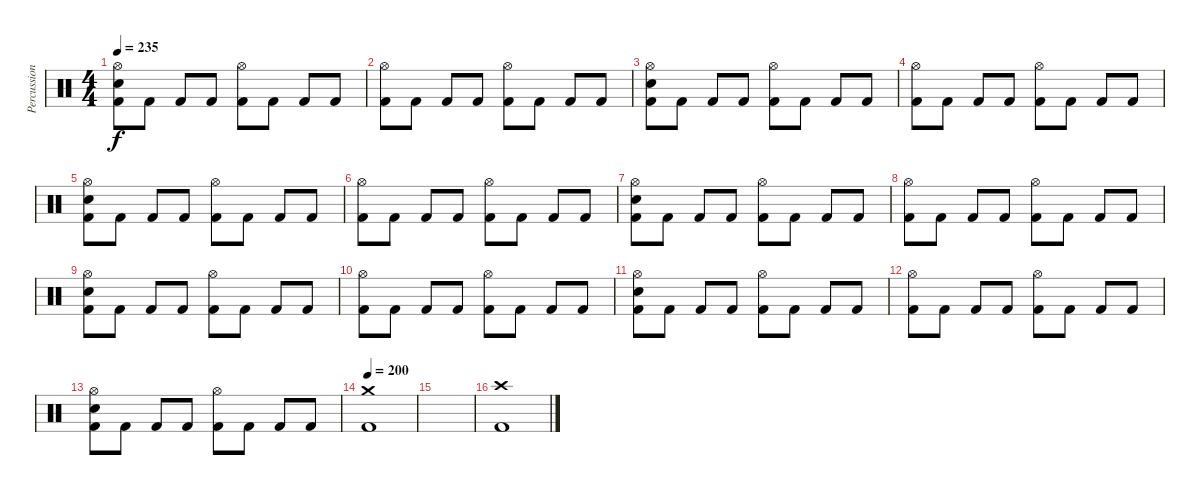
\track ("Percussion" "Percussion") {instrument percussion}
\staff {score}
\articulation defaults
\ts (4 4)
\tempo 235
\clef neutral
\ks c
("Hi-Hat (open)" "Electric Snare (hit)" "Kick (hit) 2").8{dy f} "Kick (hit) 2".8 "Kick (hit) 2".8 "Kick (hit) 2".8 ("Hi-Hat (open)" "Kick (hit) 2").8 "Kick (hit) 2".8 "Kick (hit) 2".8 "Kick (hit) 2".8 |
("Hi-Hat (open)" "Kick (hit) 2").8 "Kick (hit) 2".8 "Kick (hit) 2".8 "Kick (hit) 2".8 ("Hi-Hat (open)" "Kick (hit) 2").8 "Kick (hit) 2".8 "Kick (hit) 2".8 "Kick (hit) 2".8 |
("Hi-Hat (open)" "Electric Snare (hit)" "Kick (hit) 2").8 "Kick (hit) 2".8 "Kick (hit) 2".8 "Kick (hit) 2".8 ("Hi-Hat (open)" "Kick (hit) 2").8 "Kick (hit) 2".8 "Kick (hit) 2".8 "Kick (hit) 2".8 |
("Hi-Hat (open)" "Kick (hit) 2").8 "Kick (hit) 2".8 "Kick (hit) 2".8 "Kick (hit) 2".8 ("Hi-Hat (open)" "Kick (hit) 2").8 "Kick (hit) 2".8 "Kick (hit) 2".8 "Kick (hit) 2".8 |
("Hi-Hat (open)" "Electric Snare (hit)" "Kick (hit) 2").8 "Kick (hit) 2".8 "Kick (hit) 2".8 "Kick (hit) 2".8 ("Hi-Hat (open)" "Kick (hit) 2").8 "Kick (hit) 2".8 "Kick (hit) 2".8 "Kick (hit) 2".8 |
("Hi-Hat (open)" "Kick (hit) 2").8 "Kick (hit) 2".8 "Kick (hit) 2".8 "Kick (hit) 2".8 ("Hi-Hat (open)" "Kick (hit) 2").8 "Kick (hit) 2".8 "Kick (hit) 2".8 "Kick (hit) 2".8 |
("Hi-Hat (open)" "Electric Snare (hit)" "Kick (hit) 2").8 "Kick (hit) 2".8 "Kick (hit) 2".8 "Kick (hit) 2".8 ("Hi-Hat (open)" "Kick (hit) 2").8 "Kick (hit) 2".8 "Kick (hit) 2".8 "Kick (hit) 2".8 |
("Hi-Hat (open)" "Kick (hit) 2").8 "Kick (hit) 2".8 "Kick (hit) 2".8 "Kick (hit) 2".8 ("Hi-Hat (open)" "Kick (hit) 2").8 "Kick (hit) 2".8 "Kick (hit) 2".8 "Kick (hit) 2".8 |
("Hi-Hat (open)" "Electric Snare (hit)" "Kick (hit) 2").8 "Kick (hit) 2".8 "Kick (hit) 2".8 "Kick (hit) 2".8 ("Hi-Hat (open)" "Kick (hit) 2").8 "Kick (hit) 2".8 "Kick (hit) 2".8 "Kick (hit) 2".8 |
("Hi-Hat (open)" "Kick (hit) 2").8 "Kick (hit) 2".8 "Kick (hit) 2".8 "Kick (hit) 2".8 ("Hi-Hat (open)" "Kick (hit) 2").8 "Kick (hit) 2".8 "Kick (hit) 2".8 "Kick (hit) 2".8 |
("Hi-Hat (open)" "Electric Snare (hit)" "Kick (hit) 2").8 "Kick (hit) 2".8 "Kick (hit) 2".8 "Kick (hit) 2".8 ("Hi-Hat (open)" "Kick (hit) 2").8 "Kick (hit) 2".8 "Kick (hit) 2".8 "Kick (hit) 2".8 |
("Hi-Hat (open)" "Kick (hit) 2").8 "Kick (hit) 2".8 "Kick (hit) 2".8 "Kick (hit) 2".8 ("Hi-Hat (open)" "Kick (hit) 2").8 "Kick (hit) 2".8 "Kick (hit) 2".8 "Kick (hit) 2".8 |
("Hi-Hat (open)" "Electric Snare (hit)" "Kick (hit) 2").8 "Kick (hit) 2".8 "Kick (hit) 2".8 "Kick (hit) 2".8 ("Hi-Hat (open)" "Kick (hit) 2").8 "Kick (hit) 2".8 "Kick (hit) 2".8 "Kick (hit) 2".8 |
\tempo 200
("Crash medium (hit)" "Kick (hit) 2").1 |
|
("Crash high (hit)" "Kick (hit) 2").1
